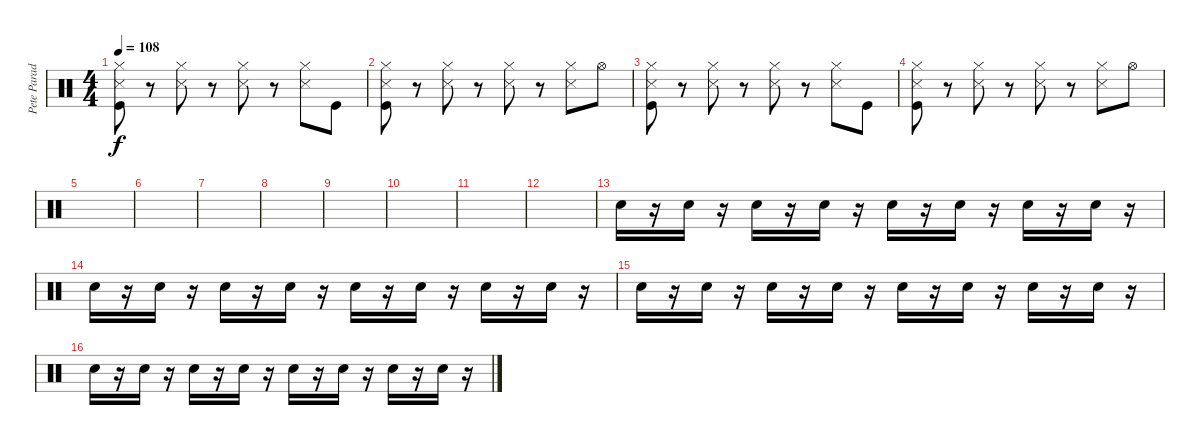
\track ("Pete Parada - Drums" "Pete Parad") {instrument percussion}
\staff {score}
\articulation defaults
\ts (4 4)
\tempo 108
\clef neutral
\ks c
("Hi-Hat (closed)" "Metronome (hit)" "Kick (hit)").8{dy f} r.8 ("Hi-Hat (closed)" "Metronome (hit)").8 r.8 ("Hi-Hat (closed)" "Metronome (hit)").8 r.8 ("Hi-Hat (closed)" "Metronome (hit)").8 "Kick (hit)".8 |
("Hi-Hat (closed)" "Metronome (hit)" "Kick (hit)").8 r.8 ("Hi-Hat (closed)" "Metronome (hit)").8 r.8 ("Hi-Hat (closed)" "Metronome (hit)").8 r.8 ("Hi-Hat (closed)" "Metronome (hit)").8 "Hi-Hat (open)".8 |
("Hi-Hat (closed)" "Metronome (hit)" "Kick (hit)").8 r.8 ("Hi-Hat (closed)" "Metronome (hit)").8 r.8 ("Hi-Hat (closed)" "Metronome (hit)").8 r.8 ("Hi-Hat (closed)" "Metronome (hit)").8 "Kick (hit)".8 |
("Hi-Hat (closed)" "Metronome (hit)" "Kick (hit)").8 r.8 ("Hi-Hat (closed)" "Metronome (hit)").8 r.8 ("Hi-Hat (closed)" "Metronome (hit)").8 r.8 ("Hi-Hat (closed)" "Metronome (hit)").8 "Hi-Hat (open)".8 |
|
|
|
|
|
|
|
|
"Electric Snare (hit)".16{volume 16} r.16 "Electric Snare (hit)".16 r.16 "Electric Snare (hit)".16 r.16 "Electric Snare (hit)".16 r.16 "Electric Snare (hit)".16 r.16 "Electric Snare (hit)".16 r.16 "Electric Snare (hit)".16 r.16 "Electric Snare (hit)".16 r.16 |
"Electric Snare (hit)".16 r.16 "Electric Snare (hit)".16 r.16 "Electric Snare (hit)".16 r.16 "Electric Snare (hit)".16 r.16 "Electric Snare (hit)".16 r.16 "Electric Snare (hit)".16 r.16 "Electric Snare (hit)".16 r.16 "Electric Snare (hit)".16 r.16 |
"Electric Snare (hit)".16 r.16 "Electric Snare (hit)".16 r.16 "Electric Snare (hit)".16 r.16 "Electric Snare (hit)".16 r.16 "Electric Snare (hit)".16 r.16 "Electric Snare (hit)".16 r.16 "Electric Snare (hit)".16 r.16 "Electric Snare (hit)".16 r.16 |
"Electric Snare (hit)".16 r.16 "Electric Snare (hit)".16 r.16 "Electric Snare (hit)".16 r.16 "Electric Snare (hit)".16 r.16 "Electric Snare (hit)".16 r.16 "Electric Snare (hit)".16 r.16 "Electric Snare (hit)".16 r.16 "Electric Snare (hit)".16 r.16
